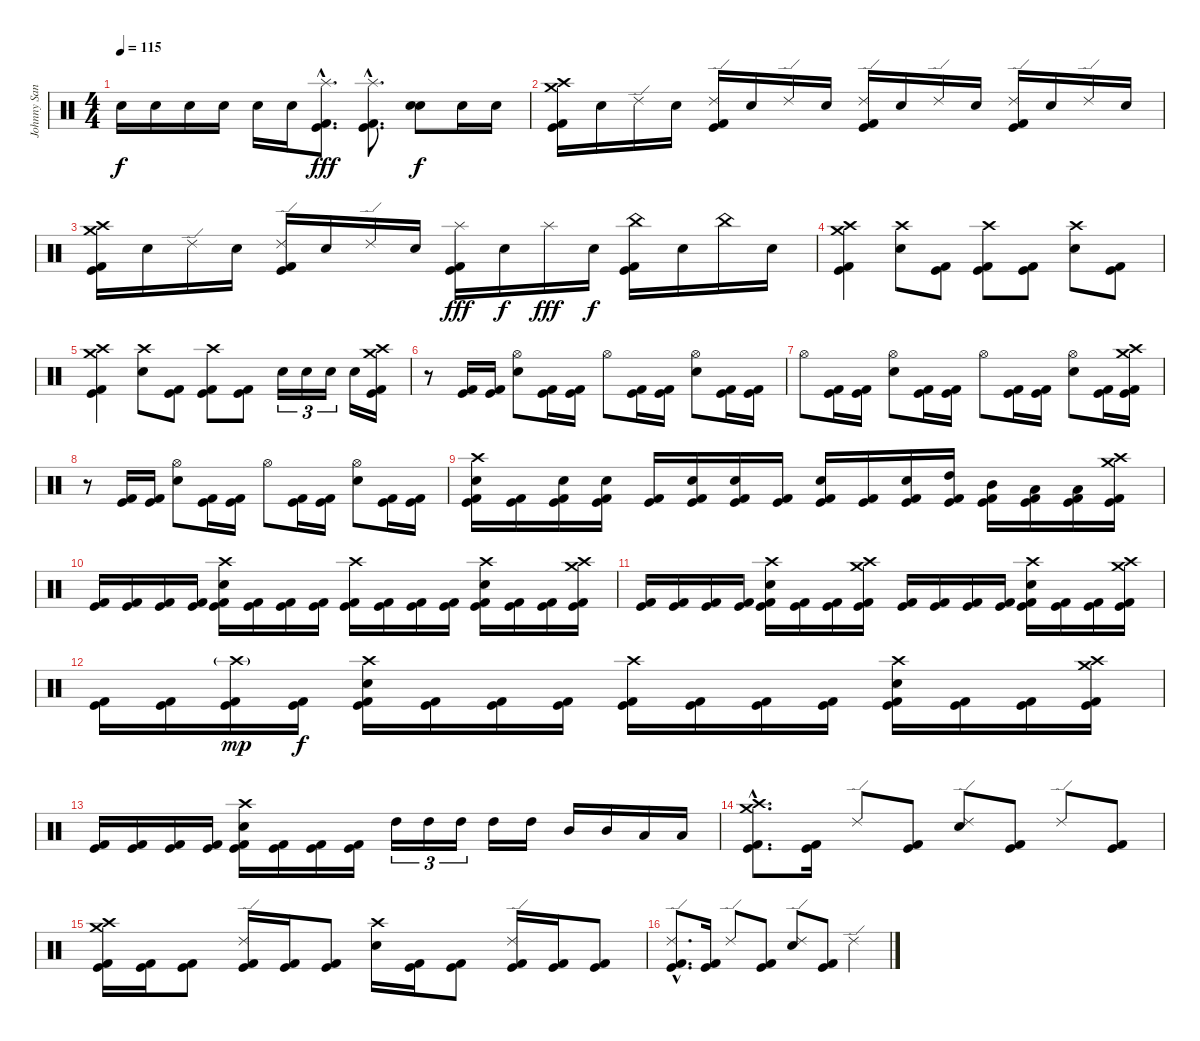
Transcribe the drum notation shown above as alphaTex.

\track ("Johnny Sandin" "Johnny San") {instrument percussion}
\staff {score}
\articulation defaults
\ts (4 4)
\tempo 115
\clef neutral
\ks c "Snare (hit) 2".16{dy f} "Snare (hit) 2".16 "Snare (hit) 2".16 "Snare (hit) 2".16 "Snare (hit) 2".16 "Snare (hit) 2".16
("Splash (hit)"{hac} "Kick (hit) 2"{hac} "Kick (hit)"{hac}).8{d dy fff} ("Splash (hit)"{hac} "Kick (hit) 2"{hac} "Kick (hit)"{hac}).8{d} ("Snare (hit) 2" "Snare (hit) 2").8{bd 240 dy f} "Snare (hit) 2".16 "Snare (hit) 2".16 |
("Crash medium (hit)" "Crash high (hit)" "Kick (hit) 2" "Kick (hit)").16 "Snare (hit) 2".16 "Ride (edge) 2".16 "Snare (hit) 2".16 ("Ride (edge) 2" "Kick (hit) 2" "Kick (hit)").16 "Snare (hit) 2".16 "Ride (edge) 2".16 "Snare (hit) 2".16 ("Ride (edge) 2" "Kick (hit) 2" "Kick (hit)").16 "Snare (hit) 2".16 "Ride (edge) 2".16 "Snare (hit) 2".16 ("Ride (edge) 2" "Kick (hit) 2" "Kick (hit)").16 "Snare (hit) 2".16 "Ride (edge) 2".16 "Snare (hit) 2".16 |
("Crash medium (hit)" "Crash high (hit)" "Kick (hit) 2" "Kick (hit)").16 "Snare (hit) 2".16 "Ride (edge) 2".16 "Snare (hit) 2".16 ("Ride (edge) 2" "Kick (hit) 2" "Kick (hit)").16 "Snare (hit) 2".16 "Ride (edge) 2".16 "Snare (hit) 2".16 ("Splash (hit)" "Kick (hit) 2" "Kick (hit)").16{dy fff} "Snare (hit) 2".16{dy f} "Splash (hit)".16{dy fff} "Snare (hit) 2".16{dy f} ("China (hit)" "Kick (hit) 2" "Kick (hit)").16 "Snare (hit) 2".16 "China (hit)".16 "Snare (hit) 2".16 |
("Crash medium (hit)" "Crash high (hit)" "Kick (hit) 2" "Kick (hit)").4 ("Crash high (hit)" "Snare (hit) 2").8 ("Kick (hit) 2" "Kick (hit)").8 ("Crash high (hit)" "Kick (hit) 2" "Kick (hit)").8 ("Kick (hit) 2" "Kick (hit)").8 ("Crash high (hit)" "Snare (hit) 2").8 ("Kick (hit) 2" "Kick (hit)").8 |
("Crash medium (hit)" "Crash high (hit)" "Kick (hit) 2" "Kick (hit)").4 ("Crash high (hit)" "Snare (hit) 2").8 ("Kick (hit) 2" "Kick (hit)").8 ("Crash high (hit)" "Kick (hit) 2" "Kick (hit)").8 ("Kick (hit) 2" "Kick (hit)").8 "Snare (hit) 2".16{tu (3 2)} "Snare (hit) 2".16{tu (3 2)} "Snare (hit) 2".16{tu (3 2)} "Snare (hit) 2".16 ("Crash medium (hit)" "Crash high (hit)" "Kick (hit) 2" "Kick (hit)").16 |
r.8 ("Kick (hit) 2" "Kick (hit)").16 ("Kick (hit) 2" "Kick (hit)").16 ("Hi-Hat (open)" "Snare (hit) 2").8 ("Kick (hit) 2" "Kick (hit)").16 ("Kick (hit) 2" "Kick (hit)").16 "Hi-Hat (open)".8 ("Kick (hit) 2" "Kick (hit)").16 ("Kick (hit) 2" "Kick (hit)").16 ("Hi-Hat (open)" "Snare (hit) 2").8 ("Kick (hit) 2" "Kick (hit)").16 ("Kick (hit) 2" "Kick (hit)").16 |
"Hi-Hat (open)".8 ("Kick (hit) 2" "Kick (hit)").16 ("Kick (hit) 2" "Kick (hit)").16 ("Hi-Hat (open)" "Snare (hit) 2").8 ("Kick (hit) 2" "Kick (hit)").16 ("Kick (hit) 2" "Kick (hit)").16 "Hi-Hat (open)".8 ("Kick (hit) 2" "Kick (hit)").16 ("Kick (hit) 2" "Kick (hit)").16 ("Hi-Hat (open)" "Snare (hit) 2").8 ("Kick (hit) 2" "Kick (hit)").16 ("Crash medium (hit)" "Crash high (hit)" "Kick (hit) 2" "Kick (hit)").16 |
r.8 ("Kick (hit) 2" "Kick (hit)").16 ("Kick (hit) 2" "Kick (hit)").16 ("Hi-Hat (open)" "Snare (hit) 2").8 ("Kick (hit) 2" "Kick (hit)").16 ("Kick (hit) 2" "Kick (hit)").16 "Hi-Hat (open)".8 ("Kick (hit) 2" "Kick (hit)").16 ("Kick (hit) 2" "Kick (hit)").16 ("Hi-Hat (open)" "Snare (hit) 2").8 ("Kick (hit) 2" "Kick (hit)").16 ("Kick (hit) 2" "Kick (hit)").16 |
("Crash high (hit)" "Snare (hit) 2" "Kick (hit) 2" "Kick (hit)").16 ("Kick (hit) 2" "Kick (hit)").16 ("Snare (hit) 2" "Kick (hit) 2" "Kick (hit)").16 ("Snare (hit) 2" "Kick (hit) 2" "Kick (hit)").16 ("Kick (hit) 2" "Kick (hit)").16 ("Snare (hit) 2" "Kick (hit) 2" "Kick (hit)").16 ("Snare (hit) 2" "Kick (hit) 2" "Kick (hit)").16 ("Kick (hit) 2" "Kick (hit)").16 ("Snare (hit) 2" "Kick (hit) 2" "Kick (hit)").16 ("Kick (hit) 2" "Kick (hit)").16 ("Snare (hit) 2" "Kick (hit) 2" "Kick (hit)").16 ("High Tom (hit)" "Kick (hit) 2" "Kick (hit)").16 ("Mid Tom (hit)" "Kick (hit) 2" "Kick (hit)").16 ("Low Tom (hit)" "Kick (hit) 2" "Kick (hit)").16 ("Low Tom (hit)" "Kick (hit) 2" "Kick (hit)").16 ("Crash medium (hit)" "Crash high (hit)" "Kick (hit) 2" "Kick (hit)").16 |
("Kick (hit) 2" "Kick (hit)").16 ("Kick (hit) 2" "Kick (hit)").16 ("Kick (hit) 2" "Kick (hit)").16 ("Kick (hit) 2" "Kick (hit)").16 ("Crash high (hit)" "Snare (hit) 2" "Kick (hit) 2" "Kick (hit)").16 ("Kick (hit) 2" "Kick (hit)").16 ("Kick (hit) 2" "Kick (hit)").16 ("Kick (hit) 2" "Kick (hit)").16 ("Crash high (hit)" "Kick (hit) 2" "Kick (hit)").16 ("Kick (hit) 2" "Kick (hit)").16 ("Kick (hit) 2" "Kick (hit)").16 ("Kick (hit) 2" "Kick (hit)").16 ("Crash high (hit)" "Snare (hit) 2" "Kick (hit) 2" "Kick (hit)").16 ("Kick (hit) 2" "Kick (hit)").16 ("Kick (hit) 2" "Kick (hit)").16 ("Crash medium (hit)" "Crash high (hit)" "Kick (hit) 2" "Kick (hit)").16 |
("Kick (hit) 2" "Kick (hit)").16 ("Kick (hit) 2" "Kick (hit)").16 ("Kick (hit) 2" "Kick (hit)").16 ("Kick (hit) 2" "Kick (hit)").16 ("Crash high (hit)" "Snare (hit) 2" "Kick (hit) 2" "Kick (hit)").16 ("Kick (hit) 2" "Kick (hit)").16 ("Kick (hit) 2" "Kick (hit)").16 ("Crash medium (hit)" "Crash high (hit)" "Kick (hit) 2" "Kick (hit)").16 ("Kick (hit) 2" "Kick (hit)").16 ("Kick (hit) 2" "Kick (hit)").16 ("Kick (hit) 2" "Kick (hit)").16 ("Kick (hit) 2" "Kick (hit)").16 ("Crash high (hit)" "Snare (hit) 2" "Kick (hit) 2" "Kick (hit)").16 ("Kick (hit) 2" "Kick (hit)").16 ("Kick (hit) 2" "Kick (hit)").16 ("Crash medium (hit)" "Crash high (hit)" "Kick (hit) 2" "Kick (hit)").16 |
("Kick (hit) 2" "Kick (hit)").16 ("Kick (hit) 2" "Kick (hit)").16 ("Crash high (hit)"{g} "Kick (hit) 2" "Kick (hit)").16{dy mp} ("Kick (hit) 2" "Kick (hit)").16{dy f} ("Crash high (hit)" "Snare (hit) 2" "Kick (hit) 2" "Kick (hit)").16 ("Kick (hit) 2" "Kick (hit)").16 ("Kick (hit) 2" "Kick (hit)").16 ("Kick (hit) 2" "Kick (hit)").16 ("Crash high (hit)" "Kick (hit) 2" "Kick (hit)").16 ("Kick (hit) 2" "Kick (hit)").16 ("Kick (hit) 2" "Kick (hit)").16 ("Kick (hit) 2" "Kick (hit)").16 ("Crash high (hit)" "Snare (hit) 2" "Kick (hit) 2" "Kick (hit)").16 ("Kick (hit) 2" "Kick (hit)").16 ("Kick (hit) 2" "Kick (hit)").16 ("Crash medium (hit)" "Crash high (hit)" "Kick (hit) 2" "Kick (hit)").16 |
("Kick (hit) 2" "Kick (hit)").16 ("Kick (hit) 2" "Kick (hit)").16 ("Kick (hit) 2" "Kick (hit)").16 ("Kick (hit) 2" "Kick (hit)").16 ("Crash high (hit)" "Snare (hit) 2" "Kick (hit) 2" "Kick (hit)").16 ("Kick (hit) 2" "Kick (hit)").16 ("Kick (hit) 2" "Kick (hit)").16 ("Kick (hit) 2" "Kick (hit)").16 "High Tom (hit)".16{tu (3 2)} "High Tom (hit)".16{tu (3 2)} "High Tom (hit)".16{tu (3 2)} "High Tom (hit)".16 "High Tom (hit)".16 "Mid Tom (hit)".16 "Mid Tom (hit)".16 "Low Tom (hit)".16 "Low Tom (hit)".16 |
("Crash medium (hit)"{hac} "Crash high (hit)"{hac} "Kick (hit) 2"{hac} "Kick (hit)"{hac}).8{d} ("Kick (hit) 2" "Kick (hit)").16 "Ride (edge) 2".8 ("Kick (hit) 2" "Kick (hit)").8 ("Ride (edge) 2" "Snare (hit) 2").8 ("Kick (hit) 2" "Kick (hit)").8 "Ride (edge) 2".8 ("Kick (hit) 2" "Kick (hit)").8 |
("Crash medium (hit)" "Crash high (hit)" "Kick (hit) 2" "Kick (hit)").16 ("Kick (hit) 2" "Kick (hit)").16 ("Kick (hit) 2" "Kick (hit)").8 ("Ride (edge) 2" "Kick (hit) 2" "Kick (hit)").16 ("Kick (hit) 2" "Kick (hit)").16 ("Kick (hit) 2" "Kick (hit)").8 ("Crash high (hit)" "Snare (hit) 2").16 ("Kick (hit) 2" "Kick (hit)").16 ("Kick (hit) 2" "Kick (hit)").8 ("Ride (edge) 2" "Kick (hit) 2" "Kick (hit)").16 ("Kick (hit) 2" "Kick (hit)").16 ("Kick (hit) 2" "Kick (hit)").8 |
("Ride (edge) 2"{hac} "Kick (hit) 2"{hac} "Kick (hit)"{hac}).8{d} ("Kick (hit) 2" "Kick (hit)").16 "Ride (edge) 2".8 ("Kick (hit) 2" "Kick (hit)").8 ("Ride (edge) 2" "Snare (hit) 2").8 ("Kick (hit) 2" "Kick (hit)").8 "Ride (edge) 2".4
